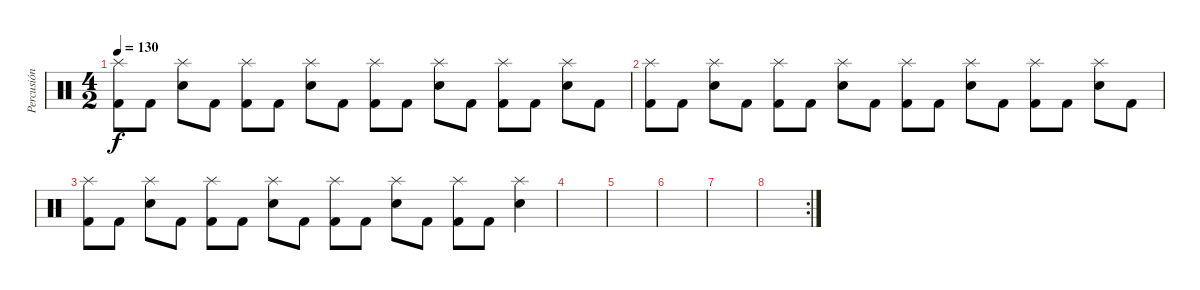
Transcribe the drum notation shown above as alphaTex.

\track ("Percusión" "Percusión") {instrument percussion}
\staff {score}
\articulation defaults
\ts (4 2)
\tempo 130
\clef neutral
\ks c
("Splash (hit)" "Kick (hit) 2").8{dy f} "Kick (hit) 2".8 ("Splash (hit)" "Snare (hit) 2").8 "Kick (hit) 2".8 ("Splash (hit)" "Kick (hit) 2").8 "Kick (hit) 2".8 ("Splash (hit)" "Snare (hit) 2").8 "Kick (hit) 2".8 ("Splash (hit)" "Kick (hit) 2").8 "Kick (hit) 2".8 ("Splash (hit)" "Snare (hit) 2").8 "Kick (hit) 2".8 ("Splash (hit)" "Kick (hit) 2").8 "Kick (hit) 2".8 ("Splash (hit)" "Snare (hit) 2").8 "Kick (hit) 2".8 |
("Splash (hit)" "Kick (hit) 2").8 "Kick (hit) 2".8 ("Splash (hit)" "Snare (hit) 2").8 "Kick (hit) 2".8 ("Splash (hit)" "Kick (hit) 2").8 "Kick (hit) 2".8 ("Splash (hit)" "Snare (hit) 2").8 "Kick (hit) 2".8 ("Splash (hit)" "Kick (hit) 2").8 "Kick (hit) 2".8 ("Splash (hit)" "Snare (hit) 2").8 "Kick (hit) 2".8 ("Splash (hit)" "Kick (hit) 2").8 "Kick (hit) 2".8 ("Splash (hit)" "Snare (hit) 2").8 "Kick (hit) 2".8 |
("Splash (hit)" "Kick (hit) 2").8 "Kick (hit) 2".8 ("Splash (hit)" "Snare (hit) 2").8 "Kick (hit) 2".8 ("Splash (hit)" "Kick (hit) 2").8 "Kick (hit) 2".8 ("Splash (hit)" "Snare (hit) 2").8 "Kick (hit) 2".8 ("Splash (hit)" "Kick (hit) 2").8 "Kick (hit) 2".8 ("Splash (hit)" "Snare (hit) 2").8 "Kick (hit) 2".8 ("Splash (hit)" "Kick (hit) 2").8 "Kick (hit) 2".8 ("Splash (hit)" "Snare (hit) 2").4 |
|
|
|
|
\rc 2
